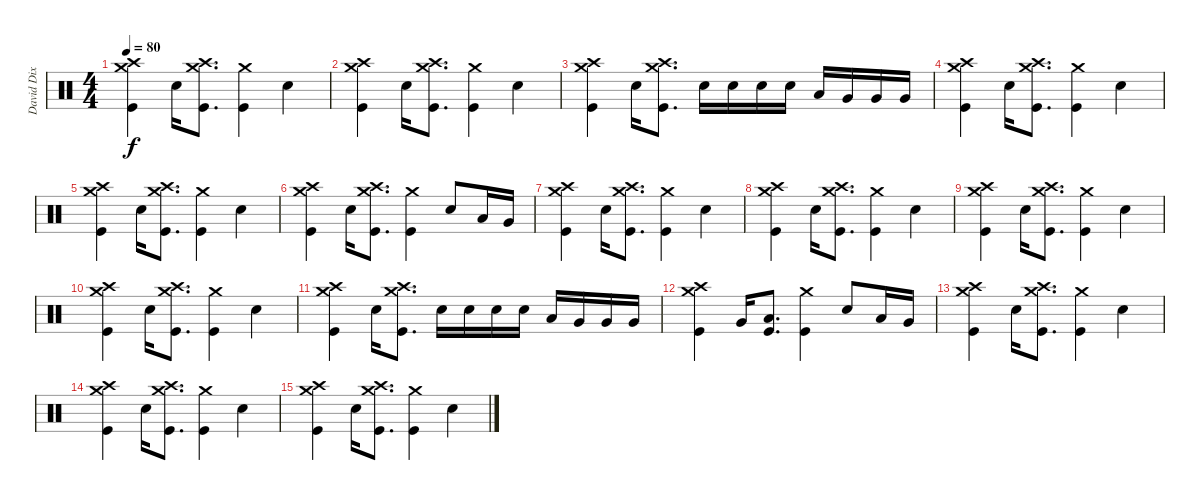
\track ("David Dix Drums" "David Dix ") {instrument percussion}
\staff {score}
\articulation defaults
\ts (4 4)
\tempo 80
\clef neutral
\ks c
("Crash high (hit)" "Crash medium (hit)" "Kick (hit)").4{dy f} "Snare (hit) 2".16 ("Crash high (hit)" "Crash medium (hit)" "Kick (hit)").8{d} ("Crash medium (hit)" "Kick (hit)").4 "Snare (hit) 2".4 |
("Crash high (hit)" "Crash medium (hit)" "Kick (hit)").4 "Snare (hit) 2".16 ("Crash high (hit)" "Crash medium (hit)" "Kick (hit)").8{d} ("Crash medium (hit)" "Kick (hit)").4 "Snare (hit) 2".4 |
("Crash high (hit)" "Crash medium (hit)" "Kick (hit)").4 "Snare (hit) 2".16 ("Crash high (hit)" "Crash medium (hit)" "Kick (hit)").8{d} "Snare (hit) 2".16 "Snare (hit) 2".16 "Snare (hit) 2".16 "Snare (hit) 2".16 "Low Tom (hit)".16 "Very Low Tom (hit)".16 "Very Low Tom (hit)".16 "Very Low Tom (hit)".16 |
("Crash high (hit)" "Crash medium (hit)" "Kick (hit)").4 "Snare (hit) 2".16 ("Crash high (hit)" "Crash medium (hit)" "Kick (hit)").8{d} ("Crash medium (hit)" "Kick (hit)").4 "Snare (hit) 2".4 |
("Crash high (hit)" "Crash medium (hit)" "Kick (hit)").4 "Snare (hit) 2".16 ("Crash high (hit)" "Crash medium (hit)" "Kick (hit)").8{d} ("Crash medium (hit)" "Kick (hit)").4 "Snare (hit) 2".4 |
("Crash high (hit)" "Crash medium (hit)" "Kick (hit)").4 "Snare (hit) 2".16 ("Crash high (hit)" "Crash medium (hit)" "Kick (hit)").8{d} ("Crash medium (hit)" "Kick (hit)").4 "Snare (hit) 2".8 "Low Tom (hit)".16 "Very Low Tom (hit)".16 |
("Crash high (hit)" "Crash medium (hit)" "Kick (hit)").4 "Snare (hit) 2".16 ("Crash high (hit)" "Crash medium (hit)" "Kick (hit)").8{d} ("Crash medium (hit)" "Kick (hit)").4 "Snare (hit) 2".4 |
("Crash high (hit)" "Crash medium (hit)" "Kick (hit)").4 "Snare (hit) 2".16 ("Crash high (hit)" "Crash medium (hit)" "Kick (hit)").8{d} ("Crash medium (hit)" "Kick (hit)").4 "Snare (hit) 2".4 |
("Crash high (hit)" "Crash medium (hit)" "Kick (hit)").4 "Snare (hit) 2".16 ("Crash high (hit)" "Crash medium (hit)" "Kick (hit)").8{d} ("Crash medium (hit)" "Kick (hit)").4 "Snare (hit) 2".4 |
("Crash high (hit)" "Crash medium (hit)" "Kick (hit)").4 "Snare (hit) 2".16 ("Crash high (hit)" "Crash medium (hit)" "Kick (hit)").8{d} ("Crash medium (hit)" "Kick (hit)").4 "Snare (hit) 2".4 |
("Crash high (hit)" "Crash medium (hit)" "Kick (hit)").4 "Snare (hit) 2".16 ("Crash high (hit)" "Crash medium (hit)" "Kick (hit)").8{d} "Snare (hit) 2".16 "Snare (hit) 2".16 "Snare (hit) 2".16 "Snare (hit) 2".16 "Low Tom (hit)".16 "Very Low Tom (hit)".16 "Very Low Tom (hit)".16 "Very Low Tom (hit)".16 |
("Crash high (hit)" "Crash medium (hit)" "Kick (hit)").4 "Very Low Tom (hit)".16 ("Low Floor Tom (hit)" "Kick (hit)").8{d} ("Crash medium (hit)" "Kick (hit)").4 "Snare (hit) 2".8 "Low Tom (hit)".16 "Very Low Tom (hit)".16 |
("Crash high (hit)" "Crash medium (hit)" "Kick (hit)").4 "Snare (hit) 2".16 ("Crash high (hit)" "Crash medium (hit)" "Kick (hit)").8{d} ("Crash medium (hit)" "Kick (hit)").4 "Snare (hit) 2".4 |
("Crash high (hit)" "Crash medium (hit)" "Kick (hit)").4 "Snare (hit) 2".16 ("Crash high (hit)" "Crash medium (hit)" "Kick (hit)").8{d} ("Crash medium (hit)" "Kick (hit)").4 "Snare (hit) 2".4 |
("Crash high (hit)" "Crash medium (hit)" "Kick (hit)").4 "Snare (hit) 2".16 ("Crash high (hit)" "Crash medium (hit)" "Kick (hit)").8{d} ("Crash medium (hit)" "Kick (hit)").4 "Snare (hit) 2".4
